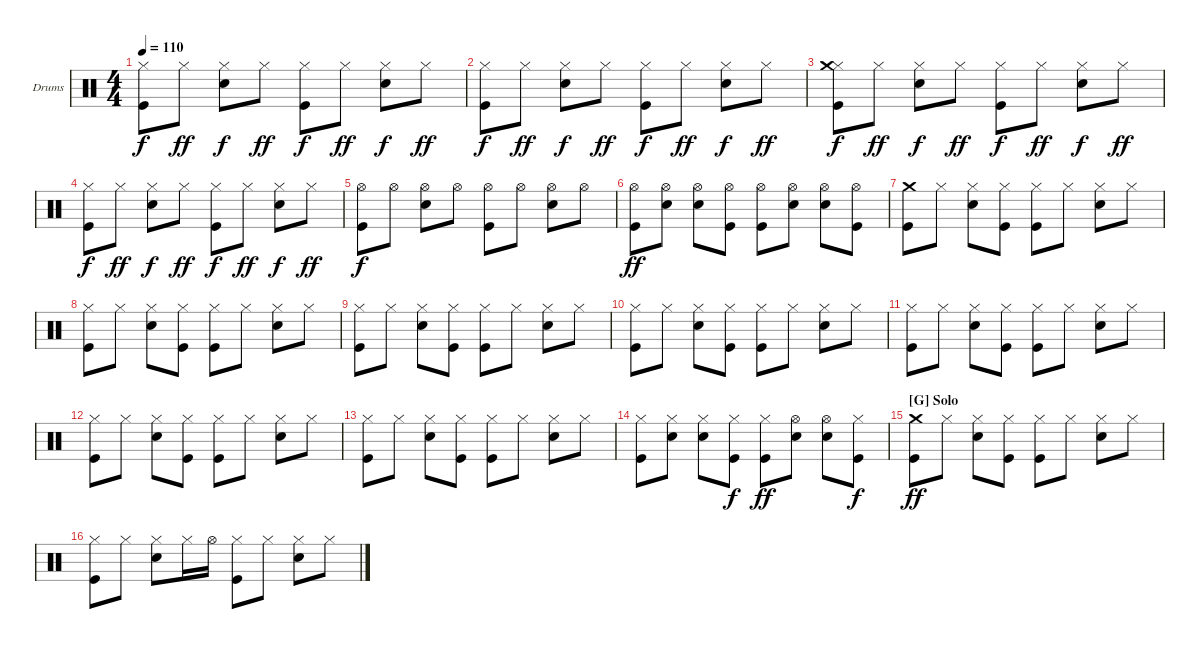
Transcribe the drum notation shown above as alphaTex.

\bracketExtendMode groupsimilarinstruments
\firstSystemTrackNameOrientation horizontal
\otherSystemsTrackNameOrientation horizontal
\track ("Drum Kit" "Drums") {instrument percussion}
\staff {score}
\articulation defaults
\ts (4 4)
\tempo 110
\clef neutral
\scale
0.333333
\ks c
("Hi-Hat (closed)" "Kick (hit)").8{dy f} "Hi-Hat (closed)".8{dy ff} ("Hi-Hat (closed)" "Snare (hit) 2").8{dy f} "Hi-Hat (closed)".8{dy ff} ("Hi-Hat (closed)" "Kick (hit)").8{dy f} "Hi-Hat (closed)".8{dy ff} ("Hi-Hat (closed)" "Snare (hit) 2").8{dy f} "Hi-Hat (closed)".8{dy ff} |
\scale
0.333333 ("Hi-Hat (closed)" "Kick (hit)").8{dy f} "Hi-Hat (closed)".8{dy ff} ("Hi-Hat (closed)" "Snare (hit) 2").8{dy f} "Hi-Hat (closed)".8{dy ff} ("Hi-Hat (closed)" "Kick (hit)").8{dy f} "Hi-Hat (closed)".8{dy ff} ("Hi-Hat (closed)" "Snare (hit) 2").8{dy f} "Hi-Hat (closed)".8{dy ff} |
\scale
0.333333 ("Hi-Hat (closed)" "Crash medium (hit)" "Kick (hit)").8{dy f} "Hi-Hat (closed)".8{dy ff} ("Hi-Hat (closed)" "Snare (hit) 2").8{dy f} "Hi-Hat (closed)".8{dy ff} ("Hi-Hat (closed)" "Kick (hit)").8{dy f} "Hi-Hat (closed)".8{dy ff} ("Hi-Hat (closed)" "Snare (hit) 2").8{dy f} "Hi-Hat (closed)".8{dy ff} |
\scale
0.333333 ("Hi-Hat (closed)" "Kick (hit)").8{dy f} "Hi-Hat (closed)".8{dy ff} ("Hi-Hat (closed)" "Snare (hit) 2").8{dy f} "Hi-Hat (closed)".8{dy ff} ("Hi-Hat (closed)" "Kick (hit)").8{dy f} "Hi-Hat (closed)".8{dy ff} ("Hi-Hat (closed)" "Snare (hit) 2").8{dy f} "Hi-Hat (closed)".8{dy ff} |
\scale
0.333333 ("Hi-Hat (open)" "Kick (hit)").8{dy f} "Hi-Hat (open)".8 ("Hi-Hat (open)" "Snare (hit) 2").8 "Hi-Hat (open)".8 ("Hi-Hat (open)" "Kick (hit)").8 "Hi-Hat (open)".8 ("Hi-Hat (open)" "Snare (hit) 2").8 "Hi-Hat (open)".8 |
\scale
0.333333 ("Hi-Hat (open)" "Kick (hit)").8{dy ff} ("Hi-Hat (open)" "Snare (hit) 2").8 ("Hi-Hat (open)" "Snare (hit) 2").8 ("Hi-Hat (open)" "Kick (hit)").8 ("Hi-Hat (open)" "Kick (hit)").8 ("Hi-Hat (open)" "Snare (hit) 2").8 ("Hi-Hat (open)" "Snare (hit) 2").8 ("Hi-Hat (open)" "Kick (hit)").8 |
\scale
0.333333 ("Crash medium (hit)" "Kick (hit)").8 "Hi-Hat (closed)".8 ("Hi-Hat (closed)" "Snare (hit) 2").8 ("Hi-Hat (closed)" "Kick (hit)").8 ("Hi-Hat (closed)" "Kick (hit)").8 "Hi-Hat (closed)".8 ("Hi-Hat (closed)" "Snare (hit) 2").8 "Hi-Hat (closed)".8 |
\scale
0.333333 ("Hi-Hat (closed)" "Kick (hit)").8 "Hi-Hat (closed)".8 ("Hi-Hat (closed)" "Snare (hit) 2").8 ("Hi-Hat (closed)" "Kick (hit)").8 ("Hi-Hat (closed)" "Kick (hit)").8 "Hi-Hat (closed)".8 ("Hi-Hat (closed)" "Snare (hit) 2").8 "Hi-Hat (closed)".8 |
\scale
0.333333 ("Hi-Hat (closed)" "Kick (hit)").8 "Hi-Hat (closed)".8 ("Hi-Hat (closed)" "Snare (hit) 2").8 ("Hi-Hat (closed)" "Kick (hit)").8 ("Hi-Hat (closed)" "Kick (hit)").8 "Hi-Hat (closed)".8 ("Hi-Hat (closed)" "Snare (hit) 2").8 "Hi-Hat (closed)".8 |
\scale
0.333333 ("Hi-Hat (closed)" "Kick (hit)").8 "Hi-Hat (closed)".8 ("Hi-Hat (closed)" "Snare (hit) 2").8 ("Hi-Hat (closed)" "Kick (hit)").8 ("Hi-Hat (closed)" "Kick (hit)").8 "Hi-Hat (closed)".8 ("Hi-Hat (closed)" "Snare (hit) 2").8 "Hi-Hat (closed)".8 |
\scale
0.333333 ("Hi-Hat (closed)" "Kick (hit)").8 "Hi-Hat (closed)".8 ("Hi-Hat (closed)" "Snare (hit) 2").8 ("Hi-Hat (closed)" "Kick (hit)").8 ("Hi-Hat (closed)" "Kick (hit)").8 "Hi-Hat (closed)".8 ("Hi-Hat (closed)" "Snare (hit) 2").8 "Hi-Hat (closed)".8 |
\scale
0.333333 ("Hi-Hat (closed)" "Kick (hit)").8 "Hi-Hat (closed)".8 ("Hi-Hat (closed)" "Snare (hit) 2").8 ("Hi-Hat (closed)" "Kick (hit)").8 ("Hi-Hat (closed)" "Kick (hit)").8 "Hi-Hat (closed)".8 ("Hi-Hat (closed)" "Snare (hit) 2").8 "Hi-Hat (closed)".8 |
\scale
0.333333 ("Hi-Hat (closed)" "Kick (hit)").8 "Hi-Hat (closed)".8 ("Hi-Hat (closed)" "Snare (hit) 2").8 ("Hi-Hat (closed)" "Kick (hit)").8 ("Hi-Hat (closed)" "Kick (hit)").8 "Hi-Hat (closed)".8 ("Hi-Hat (closed)" "Snare (hit) 2").8 "Hi-Hat (closed)".8 |
\scale
0.333333 ("Hi-Hat (closed)" "Kick (hit)").8 ("Hi-Hat (closed)" "Snare (hit) 2").8 ("Hi-Hat (closed)" "Snare (hit) 2").8 ("Hi-Hat (closed)" "Kick (hit)").8{dy f} ("Hi-Hat (closed)" "Kick (hit)").8{dy ff} ("Hi-Hat (open)" "Snare (hit) 2").8 ("Hi-Hat (open)" "Snare (hit) 2").8 ("Hi-Hat (closed)" "Kick (hit)").8{dy f} |
\section ("G" "Solo")
\scale
0.333333 ("Crash medium (hit)" "Kick (hit)").8{dy ff} "Hi-Hat (closed)".8 ("Hi-Hat (closed)" "Snare (hit) 2").8 ("Hi-Hat (closed)" "Kick (hit)").8 ("Hi-Hat (closed)" "Kick (hit)").8 "Hi-Hat (closed)".8 ("Hi-Hat (closed)" "Snare (hit) 2").8 "Hi-Hat (closed)".8 |
\scale
0.333333 ("Hi-Hat (closed)" "Kick (hit)").8 "Hi-Hat (closed)".8 ("Hi-Hat (closed)" "Snare (hit) 2").8 "Hi-Hat (closed)".16 "Hi-Hat (open)".16 ("Hi-Hat (closed)" "Kick (hit)").8 "Hi-Hat (closed)".8 ("Hi-Hat (closed)" "Snare (hit) 2").8 "Hi-Hat (closed)".8
